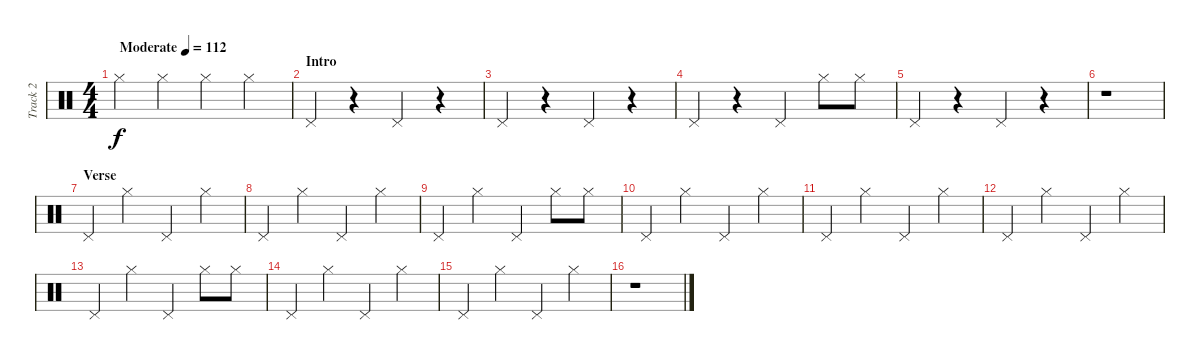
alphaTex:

\track ("Track 2" "Track 2") {instrument percussion}
\staff {score}
\articulation defaults
\ts (4 4)
\tempo (112 "Moderate")
\clef neutral
\ks c "Hi-Hat (closed)".4{dy f} "Hi-Hat (closed)".4 "Hi-Hat (closed)".4 "Hi-Hat (closed)".4
|
\section ("" "Intro")
"Pedal Hi-Hat (hit)".4 r.4 "Pedal Hi-Hat (hit)".4 r.4 |
"Pedal Hi-Hat (hit)".4 r.4 "Pedal Hi-Hat (hit)".4 r.4 |
"Pedal Hi-Hat (hit)".4 r.4 "Pedal Hi-Hat (hit)".4 "Hi-Hat (closed)".8 "Hi-Hat (closed)".8 |
"Pedal Hi-Hat (hit)".4 r.4 "Pedal Hi-Hat (hit)".4 r.4 |
r.1 |
\section ("" "Verse")
"Pedal Hi-Hat (hit)".4 "Hi-Hat (closed)".4 "Pedal Hi-Hat (hit)".4 "Hi-Hat (closed)".4 |
"Pedal Hi-Hat (hit)".4 "Hi-Hat (closed)".4 "Pedal Hi-Hat (hit)".4 "Hi-Hat (closed)".4 |
"Pedal Hi-Hat (hit)".4 "Hi-Hat (closed)".4 "Pedal Hi-Hat (hit)".4 "Hi-Hat (closed)".8 "Hi-Hat (closed)".8 |
"Pedal Hi-Hat (hit)".4 "Hi-Hat (closed)".4 "Pedal Hi-Hat (hit)".4 "Hi-Hat (closed)".4 |
"Pedal Hi-Hat (hit)".4 "Hi-Hat (closed)".4 "Pedal Hi-Hat (hit)".4 "Hi-Hat (closed)".4 |
"Pedal Hi-Hat (hit)".4 "Hi-Hat (closed)".4 "Pedal Hi-Hat (hit)".4 "Hi-Hat (closed)".4 |
"Pedal Hi-Hat (hit)".4 "Hi-Hat (closed)".4 "Pedal Hi-Hat (hit)".4 "Hi-Hat (closed)".8 "Hi-Hat (closed)".8 |
"Pedal Hi-Hat (hit)".4 "Hi-Hat (closed)".4 "Pedal Hi-Hat (hit)".4 "Hi-Hat (closed)".4 |
"Pedal Hi-Hat (hit)".4 "Hi-Hat (closed)".4 "Pedal Hi-Hat (hit)".4 "Hi-Hat (closed)".4 |
r.1
